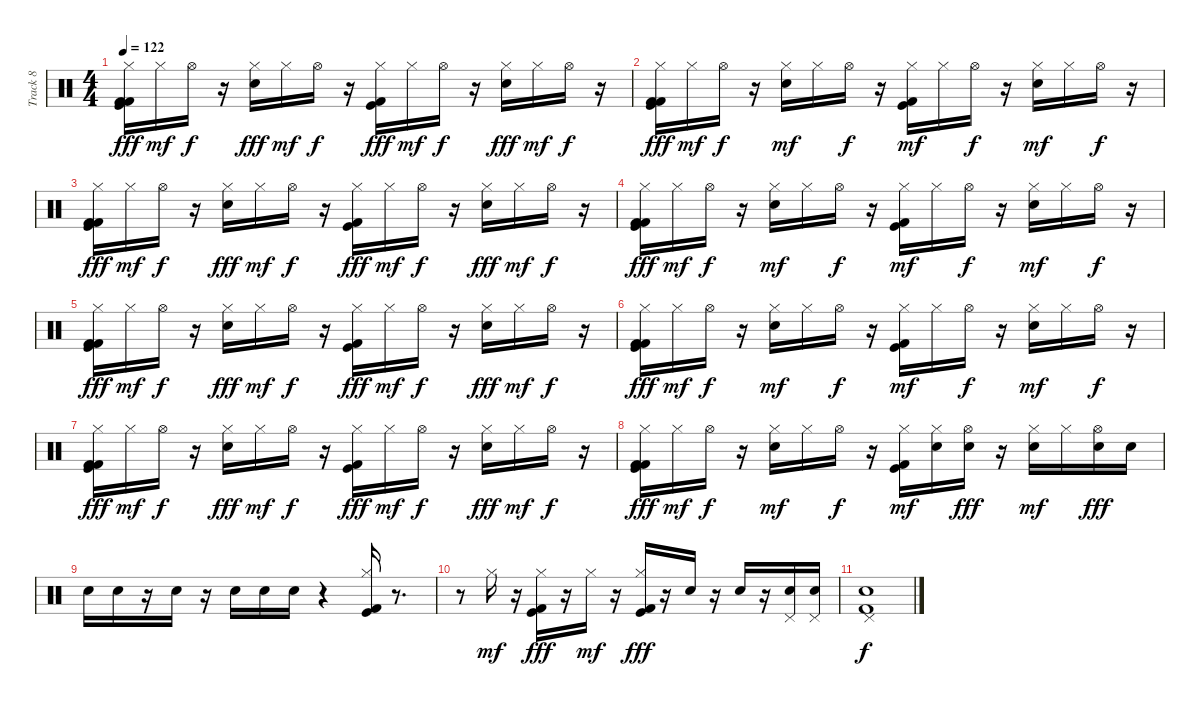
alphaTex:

\track ("Track 8" "Track 8") {instrument percussion}
\staff {score}
\articulation defaults
\ts (4 4)
\tempo 122
\clef neutral
\ks c
("Kick (hit) 2" "Hi-Hat (closed)" "Kick (hit)" "Kick (hit) 2").16{dy fff} "Hi-Hat (closed)".16{dy mf} "Hi-Hat (open)".16{dy f} r.16 ("Hi-Hat (closed)" "Electric Snare (hit)").16{dy fff} "Hi-Hat (closed)".16{dy mf} "Hi-Hat (open)".16{dy f} r.16 ("Hi-Hat (closed)" "Kick (hit)" "Kick (hit) 2").16{dy fff} "Hi-Hat (closed)".16{dy mf} "Hi-Hat (open)".16{dy f} r.16 ("Hi-Hat (closed)" "Electric Snare (hit)").16{dy fff} "Hi-Hat (closed)".16{dy mf} "Hi-Hat (open)".16{dy f} r.16 |
("Kick (hit) 2" "Hi-Hat (closed)" "Kick (hit) 2" "Kick (hit)").16{dy fff} "Hi-Hat (closed)".16{dy mf} "Hi-Hat (open)".16{dy f} r.16 ("Electric Snare (hit)" "Hi-Hat (closed)").16{dy mf} "Hi-Hat (closed)".16 "Hi-Hat (open)".16{dy f} r.16 ("Kick (hit) 2" "Kick (hit)" "Hi-Hat (closed)").16{dy mf} "Hi-Hat (closed)".16 "Hi-Hat (open)".16{dy f} r.16 ("Electric Snare (hit)" "Hi-Hat (closed)").16{dy mf} "Hi-Hat (closed)".16 "Hi-Hat (open)".16{dy f} r.16 |
("Kick (hit) 2" "Hi-Hat (closed)" "Kick (hit) 2" "Kick (hit)").16{dy fff} "Hi-Hat (closed)".16{dy mf} "Hi-Hat (open)".16{dy f} r.16 ("Hi-Hat (closed)" "Electric Snare (hit)").16{dy fff} "Hi-Hat (closed)".16{dy mf} "Hi-Hat (open)".16{dy f} r.16 ("Hi-Hat (closed)" "Kick (hit)" "Kick (hit) 2").16{dy fff} "Hi-Hat (closed)".16{dy mf} "Hi-Hat (open)".16{dy f} r.16 ("Hi-Hat (closed)" "Electric Snare (hit)").16{dy fff} "Hi-Hat (closed)".16{dy mf} "Hi-Hat (open)".16{dy f} r.16 |
("Kick (hit) 2" "Hi-Hat (closed)" "Kick (hit) 2" "Kick (hit)").16{dy fff} "Hi-Hat (closed)".16{dy mf} "Hi-Hat (open)".16{dy f} r.16 ("Electric Snare (hit)" "Hi-Hat (closed)").16{dy mf} "Hi-Hat (closed)".16 "Hi-Hat (open)".16{dy f} r.16 ("Kick (hit) 2" "Kick (hit)" "Hi-Hat (closed)").16{dy mf} "Hi-Hat (closed)".16 "Hi-Hat (open)".16{dy f} r.16 ("Electric Snare (hit)" "Hi-Hat (closed)").16{dy mf} "Hi-Hat (closed)".16 "Hi-Hat (open)".16{dy f} r.16 |
("Kick (hit) 2" "Hi-Hat (closed)" "Kick (hit) 2" "Kick (hit)").16{dy fff} "Hi-Hat (closed)".16{dy mf} "Hi-Hat (open)".16{dy f} r.16 ("Hi-Hat (closed)" "Electric Snare (hit)").16{dy fff} "Hi-Hat (closed)".16{dy mf} "Hi-Hat (open)".16{dy f} r.16 ("Hi-Hat (closed)" "Kick (hit)" "Kick (hit) 2").16{dy fff} "Hi-Hat (closed)".16{dy mf} "Hi-Hat (open)".16{dy f} r.16 ("Hi-Hat (closed)" "Electric Snare (hit)").16{dy fff} "Hi-Hat (closed)".16{dy mf} "Hi-Hat (open)".16{dy f} r.16 |
("Kick (hit) 2" "Hi-Hat (closed)" "Kick (hit) 2" "Kick (hit)").16{dy fff} "Hi-Hat (closed)".16{dy mf} "Hi-Hat (open)".16{dy f} r.16 ("Electric Snare (hit)" "Hi-Hat (closed)").16{dy mf} "Hi-Hat (closed)".16 "Hi-Hat (open)".16{dy f} r.16 ("Kick (hit) 2" "Kick (hit)" "Hi-Hat (closed)").16{dy mf} "Hi-Hat (closed)".16 "Hi-Hat (open)".16{dy f} r.16 ("Electric Snare (hit)" "Hi-Hat (closed)").16{dy mf} "Hi-Hat (closed)".16 "Hi-Hat (open)".16{dy f} r.16 |
("Kick (hit) 2" "Hi-Hat (closed)" "Kick (hit) 2" "Kick (hit)").16{dy fff} "Hi-Hat (closed)".16{dy mf} "Hi-Hat (open)".16{dy f} r.16 ("Hi-Hat (closed)" "Electric Snare (hit)").16{dy fff} "Hi-Hat (closed)".16{dy mf} "Hi-Hat (open)".16{dy f} r.16 ("Hi-Hat (closed)" "Kick (hit)" "Kick (hit) 2").16{dy fff} "Hi-Hat (closed)".16{dy mf} "Hi-Hat (open)".16{dy f} r.16 ("Hi-Hat (closed)" "Electric Snare (hit)").16{dy fff} "Hi-Hat (closed)".16{dy mf} "Hi-Hat (open)".16{dy f} r.16 |
("Kick (hit) 2" "Hi-Hat (closed)" "Kick (hit) 2" "Kick (hit)").16{dy fff} "Hi-Hat (closed)".16{dy mf} "Hi-Hat (open)".16{dy f} r.16 ("Electric Snare (hit)" "Hi-Hat (closed)").16{dy mf} "Hi-Hat (closed)".16 "Hi-Hat (open)".16{dy f} r.16 ("Kick (hit) 2" "Kick (hit)" "Hi-Hat (closed)").16{dy mf} ("Electric Snare (hit)" "Hi-Hat (closed)").16 ("Electric Snare (hit)" "Hi-Hat (open)").16{dy fff} r.16 ("Electric Snare (hit)" "Hi-Hat (closed)").16{dy mf} "Hi-Hat (closed)".16 ("Electric Snare (hit)" "Hi-Hat (open)").16{dy fff} "Electric Snare (hit)".16 |
"Electric Snare (hit)".16 "Electric Snare (hit)".16 r.16 "Electric Snare (hit)".16 r.16 "Electric Snare (hit)".16 "Electric Snare (hit)".16 "Electric Snare (hit)".16 r.4 ("Hi-Hat (closed)" "Kick (hit) 2" "Kick (hit)").16 r.8{d} |
r.8 "Hi-Hat (closed)".16{dy mf} r.16 ("Hi-Hat (closed)" "Kick (hit)" "Kick (hit) 2").16{dy fff} r.16 "Hi-Hat (closed)".16{dy mf} r.16 ("Hi-Hat (closed)" "Kick (hit)" "Kick (hit) 2").16{dy fff} r.16 "Electric Snare (hit)".16 r.16 "Electric Snare (hit)".16 r.16 ("Pedal Hi-Hat (hit)" "Electric Snare (hit)").16 ("Pedal Hi-Hat (hit)" "Electric Snare (hit)").16 |
("Pedal Hi-Hat (hit)" "Electric Snare (hit)" "Kick (hit) 2").1{dy f}
